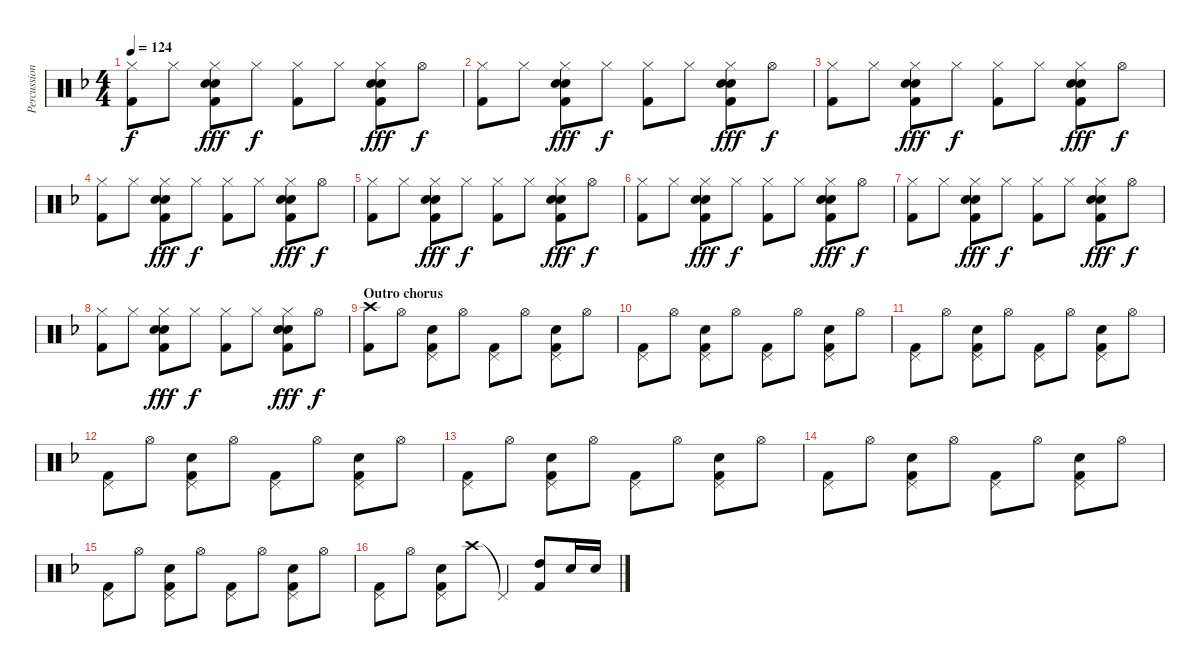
\track ("Percussion" "Percussion") {instrument percussion}
\staff {score}
\articulation defaults
\ts (4 4)
\tempo 124
\clef neutral
\ks f
("Hi-Hat (closed)" "Kick (hit) 2").8{dy f} "Hi-Hat (closed)".8 ("Hi-Hat (closed)" "Hand Clap (hit)" "Electric Snare (hit)" "Kick (hit) 2").8{dy fff} "Hi-Hat (closed)".8{dy f} ("Hi-Hat (closed)" "Kick (hit) 2").8 "Hi-Hat (closed)".8 ("Hi-Hat (closed)" "Hand Clap (hit)" "Electric Snare (hit)" "Kick (hit) 2").8{dy fff} "Hi-Hat (open)".8{dy f} |
("Hi-Hat (closed)" "Kick (hit) 2").8 "Hi-Hat (closed)".8 ("Hi-Hat (closed)" "Hand Clap (hit)" "Electric Snare (hit)" "Kick (hit) 2").8{dy fff} "Hi-Hat (closed)".8{dy f} ("Hi-Hat (closed)" "Kick (hit) 2").8 "Hi-Hat (closed)".8 ("Hi-Hat (closed)" "Hand Clap (hit)" "Electric Snare (hit)" "Kick (hit) 2").8{dy fff} "Hi-Hat (open)".8{dy f} |
("Hi-Hat (closed)" "Kick (hit) 2").8 "Hi-Hat (closed)".8 ("Hi-Hat (closed)" "Hand Clap (hit)" "Electric Snare (hit)" "Kick (hit) 2").8{dy fff} "Hi-Hat (closed)".8{dy f} ("Hi-Hat (closed)" "Kick (hit) 2").8 "Hi-Hat (closed)".8 ("Hi-Hat (closed)" "Hand Clap (hit)" "Electric Snare (hit)" "Kick (hit) 2").8{dy fff} "Hi-Hat (open)".8{dy f} |
("Hi-Hat (closed)" "Kick (hit) 2").8 "Hi-Hat (closed)".8 ("Hi-Hat (closed)" "Hand Clap (hit)" "Electric Snare (hit)" "Kick (hit) 2").8{dy fff} "Hi-Hat (closed)".8{dy f} ("Hi-Hat (closed)" "Kick (hit) 2").8 "Hi-Hat (closed)".8 ("Hi-Hat (closed)" "Hand Clap (hit)" "Electric Snare (hit)" "Kick (hit) 2").8{dy fff} "Hi-Hat (open)".8{dy f} |
("Hi-Hat (closed)" "Kick (hit) 2").8 "Hi-Hat (closed)".8 ("Hi-Hat (closed)" "Hand Clap (hit)" "Electric Snare (hit)" "Kick (hit) 2").8{dy fff} "Hi-Hat (closed)".8{dy f} ("Hi-Hat (closed)" "Kick (hit) 2").8 "Hi-Hat (closed)".8 ("Hi-Hat (closed)" "Hand Clap (hit)" "Electric Snare (hit)" "Kick (hit) 2").8{dy fff} "Hi-Hat (open)".8{dy f} |
("Hi-Hat (closed)" "Kick (hit) 2").8 "Hi-Hat (closed)".8 ("Hi-Hat (closed)" "Hand Clap (hit)" "Electric Snare (hit)" "Kick (hit) 2").8{dy fff} "Hi-Hat (closed)".8{dy f} ("Hi-Hat (closed)" "Kick (hit) 2").8 "Hi-Hat (closed)".8 ("Hi-Hat (closed)" "Hand Clap (hit)" "Electric Snare (hit)" "Kick (hit) 2").8{dy fff} "Hi-Hat (open)".8{dy f} |
("Hi-Hat (closed)" "Kick (hit) 2").8 "Hi-Hat (closed)".8 ("Hi-Hat (closed)" "Hand Clap (hit)" "Electric Snare (hit)" "Kick (hit) 2").8{dy fff} "Hi-Hat (closed)".8{dy f} ("Hi-Hat (closed)" "Kick (hit) 2").8 "Hi-Hat (closed)".8 ("Hi-Hat (closed)" "Hand Clap (hit)" "Electric Snare (hit)" "Kick (hit) 2").8{dy fff} "Hi-Hat (open)".8{dy f} |
("Hi-Hat (closed)" "Kick (hit) 2").8 "Hi-Hat (closed)".8 ("Hi-Hat (closed)" "Hand Clap (hit)" "Electric Snare (hit)" "Kick (hit) 2").8{dy fff} "Hi-Hat (closed)".8{dy f} ("Hi-Hat (closed)" "Kick (hit) 2").8 "Hi-Hat (closed)".8 ("Hi-Hat (closed)" "Hand Clap (hit)" "Electric Snare (hit)" "Kick (hit) 2").8{dy fff} "Hi-Hat (open)".8{dy f} |
\section ("" "Outro chorus")
("Crash high (hit)" "Kick (hit) 2").8 "Hi-Hat (open)".8 ("Pedal Hi-Hat (hit)" "Electric Snare (hit)" "Kick (hit) 2").8 "Hi-Hat (open)".8 ("Pedal Hi-Hat (hit)" "Kick (hit) 2").8 "Hi-Hat (open)".8 ("Pedal Hi-Hat (hit)" "Electric Snare (hit)" "Kick (hit) 2").8 "Hi-Hat (open)".8 |
("Pedal Hi-Hat (hit)" "Kick (hit) 2").8 "Hi-Hat (open)".8 ("Pedal Hi-Hat (hit)" "Electric Snare (hit)" "Kick (hit) 2").8 "Hi-Hat (open)".8 ("Pedal Hi-Hat (hit)" "Kick (hit) 2").8 "Hi-Hat (open)".8 ("Pedal Hi-Hat (hit)" "Electric Snare (hit)" "Kick (hit) 2").8 "Hi-Hat (open)".8 |
("Pedal Hi-Hat (hit)" "Kick (hit) 2").8 "Hi-Hat (open)".8 ("Pedal Hi-Hat (hit)" "Electric Snare (hit)" "Kick (hit) 2").8 "Hi-Hat (open)".8 ("Pedal Hi-Hat (hit)" "Kick (hit) 2").8 "Hi-Hat (open)".8 ("Pedal Hi-Hat (hit)" "Electric Snare (hit)" "Kick (hit) 2").8 "Hi-Hat (open)".8 |
("Pedal Hi-Hat (hit)" "Kick (hit) 2").8 "Hi-Hat (open)".8 ("Pedal Hi-Hat (hit)" "Electric Snare (hit)" "Kick (hit) 2").8 "Hi-Hat (open)".8 ("Pedal Hi-Hat (hit)" "Kick (hit) 2").8 "Hi-Hat (open)".8 ("Pedal Hi-Hat (hit)" "Electric Snare (hit)" "Kick (hit) 2").8 "Hi-Hat (open)".8 |
("Pedal Hi-Hat (hit)" "Kick (hit) 2").8 "Hi-Hat (open)".8 ("Pedal Hi-Hat (hit)" "Electric Snare (hit)" "Kick (hit) 2").8 "Hi-Hat (open)".8 ("Pedal Hi-Hat (hit)" "Kick (hit) 2").8 "Hi-Hat (open)".8 ("Pedal Hi-Hat (hit)" "Electric Snare (hit)" "Kick (hit) 2").8 "Hi-Hat (open)".8 |
("Pedal Hi-Hat (hit)" "Kick (hit) 2").8 "Hi-Hat (open)".8 ("Pedal Hi-Hat (hit)" "Electric Snare (hit)" "Kick (hit) 2").8 "Hi-Hat (open)".8 ("Pedal Hi-Hat (hit)" "Kick (hit) 2").8 "Hi-Hat (open)".8 ("Pedal Hi-Hat (hit)" "Electric Snare (hit)" "Kick (hit) 2").8 "Hi-Hat (open)".8 |
("Pedal Hi-Hat (hit)" "Kick (hit) 2").8 "Hi-Hat (open)".8 ("Pedal Hi-Hat (hit)" "Electric Snare (hit)" "Kick (hit) 2").8 "Hi-Hat (open)".8 ("Pedal Hi-Hat (hit)" "Kick (hit) 2").8 "Hi-Hat (open)".8 ("Pedal Hi-Hat (hit)" "Electric Snare (hit)" "Kick (hit) 2").8 "Hi-Hat (open)".8 |
("Pedal Hi-Hat (hit)" "Kick (hit) 2").8 "Hi-Hat (open)".8 ("Pedal Hi-Hat (hit)" "Electric Snare (hit)" "Kick (hit) 2").8 "Crash high (hit)".8 "Pedal Hi-Hat (hit)"{t}.4 ("High Tom (hit)" "Kick (hit) 2").8 "Electric Snare (hit)".16 "Electric Snare (hit)".16
